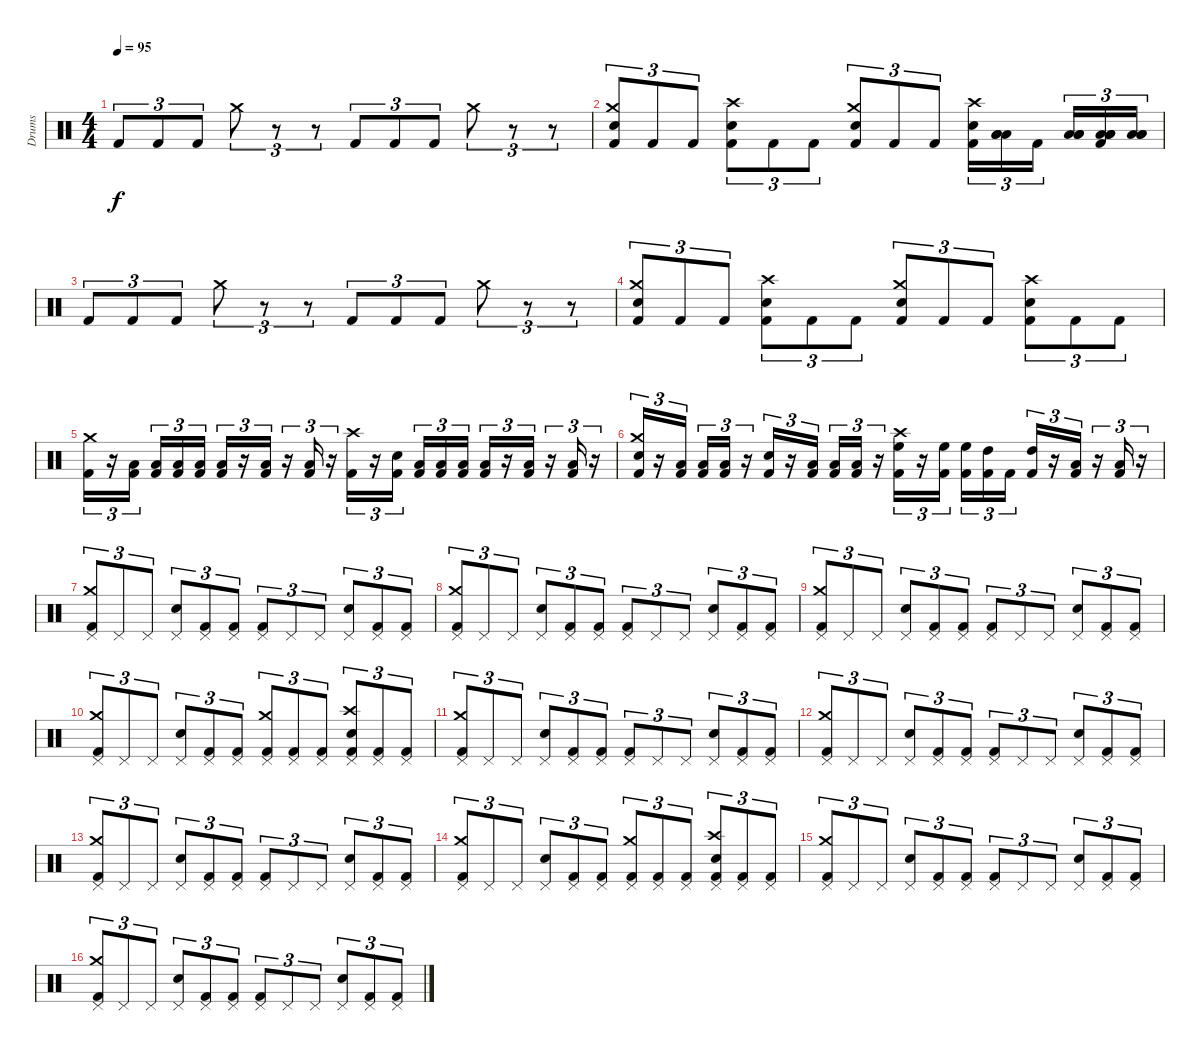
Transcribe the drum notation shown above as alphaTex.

\track ("Drums" "Drums") {instrument percussion}
\staff {score}
\articulation defaults
\ts (4 4)
\tempo 95
\clef neutral
\ks c "Kick (hit) 2".8{tu (3 2) dy f} "Kick (hit) 2".8{tu (3 2)} "Kick (hit) 2".8{tu (3 2)} "Crash medium (hit)".8{tu (3 2)}
r.8{tu (3 2)} r.8{tu (3 2)} "Kick (hit) 2".8{tu (3 2)} "Kick (hit) 2".8{tu (3 2)} "Kick (hit) 2".8{tu (3 2)} "Crash medium (hit)".8{tu (3 2)} r.8{tu (3 2)} r.8{tu (3 2)} |
("Kick (hit) 2" "Crash medium (hit)" "Snare (hit) 2").8{tu (3 2)} "Kick (hit) 2".8{tu (3 2)} "Kick (hit) 2".8{tu (3 2)} ("Kick (hit) 2" "Crash high (hit)" "Snare (hit) 2").8{tu (3 2)} "Kick (hit) 2".8{tu (3 2)} "Kick (hit) 2".8{tu (3 2)} ("Kick (hit) 2" "Crash medium (hit)" "Snare (hit) 2").8{tu (3 2)} "Kick (hit) 2".8{tu (3 2)} "Kick (hit) 2".8{tu (3 2)} ("Kick (hit) 2" "Crash high (hit)" "Snare (hit) 2").16{tu (3 2)} ("Low Tom (hit)" "Low Tom (hit)" "Low Tom (hit)").16{tu (3 2)} "Kick (hit) 2".16{tu (3 2) beam splitsecondary} ("Low Tom (hit)" "Low Tom (hit)" "Low Tom (hit)").16{tu (3 2)} ("Kick (hit) 2" "Low Tom (hit)" "Low Tom (hit)" "Low Tom (hit)").16{tu (3 2)} ("Low Floor Tom (hit)" "Low Floor Tom (hit)" "Low Floor Tom (hit)").16{tu (3 2)} |
"Kick (hit) 2".8{tu (3 2)} "Kick (hit) 2".8{tu (3 2)} "Kick (hit) 2".8{tu (3 2)} "Crash medium (hit)".8{tu (3 2)} r.8{tu (3 2)} r.8{tu (3 2)} "Kick (hit) 2".8{tu (3 2)} "Kick (hit) 2".8{tu (3 2)} "Kick (hit) 2".8{tu (3 2)} "Crash medium (hit)".8{tu (3 2)} r.8{tu (3 2)} r.8{tu (3 2)} |
("Kick (hit) 2" "Crash medium (hit)" "Snare (hit) 2").8{tu (3 2)} "Kick (hit) 2".8{tu (3 2)} "Kick (hit) 2".8{tu (3 2)} ("Kick (hit) 2" "Crash high (hit)" "Snare (hit) 2").8{tu (3 2)} "Kick (hit) 2".8{tu (3 2)} "Kick (hit) 2".8{tu (3 2)} ("Kick (hit) 2" "Crash medium (hit)" "Snare (hit) 2").8{tu (3 2)} "Kick (hit) 2".8{tu (3 2)} "Kick (hit) 2".8{tu (3 2)} ("Kick (hit) 2" "Crash high (hit)" "Snare (hit) 2").8{tu (3 2)} "Kick (hit) 2".8{tu (3 2)} "Kick (hit) 2".8{tu (3 2)} |
("Kick (hit) 2" "Crash medium (hit)").16{tu (3 2)} r.16{tu (3 2)} ("Kick (hit) 2" "Low Tom (hit)").16{tu (3 2) beam splitsecondary} ("Kick (hit) 2" "Low Tom (hit)").16{tu (3 2)} ("Kick (hit) 2" "Low Tom (hit)").16{tu (3 2)} ("Kick (hit) 2" "Low Tom (hit)").16{tu (3 2)} ("Kick (hit) 2" "Low Floor Tom (hit)").16{tu (3 2)} r.16{tu (3 2)} ("Kick (hit) 2" "Low Floor Tom (hit)").16{tu (3 2)} r.16{tu (3 2)} ("Kick (hit) 2" "Low Floor Tom (hit)").16{tu (3 2)} r.16{tu (3 2)} ("Kick (hit) 2" "Crash high (hit)").16{tu (3 2)} r.16{tu (3 2)} ("Kick (hit) 2" "Snare (hit) 2").16{tu (3 2) beam splitsecondary} ("Kick (hit) 2" "Low Tom (hit)").16{tu (3 2)} ("Kick (hit) 2" "Low Tom (hit)").16{tu (3 2)} ("Kick (hit) 2" "Low Tom (hit)").16{tu (3 2)} ("Kick (hit) 2" "Low Floor Tom (hit)").16{tu (3 2)} r.16{tu (3 2)} ("Kick (hit) 2" "Low Floor Tom (hit)").16{tu (3 2)} r.16{tu (3 2)} ("Kick (hit) 2" "Low Floor Tom (hit)").16{tu (3 2)} r.16{tu (3 2)} |
("Kick (hit) 2" "Crash medium (hit)" "Snare (hit) 2").16{tu (3 2)} r.16{tu (3 2)} ("Kick (hit) 2" "Low Tom (hit)").16{tu (3 2) beam splitsecondary} ("Kick (hit) 2" "Low Tom (hit)").16{tu (3 2)} ("Kick (hit) 2" "Low Floor Tom (hit)").16{tu (3 2)} r.16{tu (3 2)} ("Kick (hit) 2" "Snare (hit) 2").16{tu (3 2)} r.16{tu (3 2)} ("Kick (hit) 2" "Low Tom (hit)").16{tu (3 2) beam splitsecondary} ("Kick (hit) 2" "Low Tom (hit)").16{tu (3 2)} ("Kick (hit) 2" "Low Floor Tom (hit)").16{tu (3 2)} r.16{tu (3 2)} ("Kick (hit) 2" "Crash high (hit)" "High Floor Tom (hit)").16{tu (3 2)} r.16{tu (3 2)} ("Kick (hit) 2" "High Floor Tom (hit)").16{tu (3 2) beam splitsecondary} ("Kick (hit) 2" "High Floor Tom (hit)").16{tu (3 2)} ("Kick (hit) 2" "High Tom (hit)").16{tu (3 2)} "Kick (hit) 2".16{tu (3 2)} ("Kick (hit) 2" "High Tom (hit)").16{tu (3 2)} r.16{tu (3 2)} ("Kick (hit) 2" "Low Floor Tom (hit)").16{tu (3 2)} r.16{tu (3 2)} ("Kick (hit) 2" "Low Floor Tom (hit)").16{tu (3 2)} r.16{tu (3 2)} |
("Kick (hit) 2" "Crash medium (hit)" "Pedal Hi-Hat (hit)").8{tu (3 2)} "Pedal Hi-Hat (hit)".8{tu (3 2)} "Pedal Hi-Hat (hit)".8{tu (3 2)} ("Snare (hit) 2" "Pedal Hi-Hat (hit)").8{tu (3 2)} ("Kick (hit) 2" "Pedal Hi-Hat (hit)").8{tu (3 2)} ("Kick (hit) 2" "Pedal Hi-Hat (hit)").8{tu (3 2)} ("Kick (hit) 2" "Pedal Hi-Hat (hit)").8{tu (3 2)} "Pedal Hi-Hat (hit)".8{tu (3 2)} "Pedal Hi-Hat (hit)".8{tu (3 2)} ("Snare (hit) 2" "Pedal Hi-Hat (hit)").8{tu (3 2)} ("Kick (hit) 2" "Pedal Hi-Hat (hit)").8{tu (3 2)} ("Kick (hit) 2" "Pedal Hi-Hat (hit)").8{tu (3 2)} |
("Kick (hit) 2" "Crash medium (hit)" "Pedal Hi-Hat (hit)").8{tu (3 2)} "Pedal Hi-Hat (hit)".8{tu (3 2)} "Pedal Hi-Hat (hit)".8{tu (3 2)} ("Snare (hit) 2" "Pedal Hi-Hat (hit)").8{tu (3 2)} ("Kick (hit) 2" "Pedal Hi-Hat (hit)").8{tu (3 2)} ("Kick (hit) 2" "Pedal Hi-Hat (hit)").8{tu (3 2)} ("Kick (hit) 2" "Pedal Hi-Hat (hit)").8{tu (3 2)} "Pedal Hi-Hat (hit)".8{tu (3 2)} "Pedal Hi-Hat (hit)".8{tu (3 2)} ("Snare (hit) 2" "Pedal Hi-Hat (hit)").8{tu (3 2)} ("Kick (hit) 2" "Pedal Hi-Hat (hit)").8{tu (3 2)} ("Kick (hit) 2" "Pedal Hi-Hat (hit)").8{tu (3 2)} |
("Kick (hit) 2" "Crash medium (hit)" "Pedal Hi-Hat (hit)").8{tu (3 2)} "Pedal Hi-Hat (hit)".8{tu (3 2)} "Pedal Hi-Hat (hit)".8{tu (3 2)} ("Snare (hit) 2" "Pedal Hi-Hat (hit)").8{tu (3 2)} ("Kick (hit) 2" "Pedal Hi-Hat (hit)").8{tu (3 2)} ("Kick (hit) 2" "Pedal Hi-Hat (hit)").8{tu (3 2)} ("Kick (hit) 2" "Pedal Hi-Hat (hit)").8{tu (3 2)} "Pedal Hi-Hat (hit)".8{tu (3 2)} "Pedal Hi-Hat (hit)".8{tu (3 2)} ("Snare (hit) 2" "Pedal Hi-Hat (hit)").8{tu (3 2)} ("Kick (hit) 2" "Pedal Hi-Hat (hit)").8{tu (3 2)} ("Kick (hit) 2" "Pedal Hi-Hat (hit)").8{tu (3 2)} |
("Kick (hit) 2" "Crash medium (hit)" "Pedal Hi-Hat (hit)").8{tu (3 2)} "Pedal Hi-Hat (hit)".8{tu (3 2)} "Pedal Hi-Hat (hit)".8{tu (3 2)} ("Snare (hit) 2" "Pedal Hi-Hat (hit)").8{tu (3 2)} ("Kick (hit) 2" "Pedal Hi-Hat (hit)").8{tu (3 2)} ("Kick (hit) 2" "Pedal Hi-Hat (hit)").8{tu (3 2)} ("Kick (hit) 2" "Crash medium (hit)" "Pedal Hi-Hat (hit)").8{tu (3 2)} ("Kick (hit) 2" "Pedal Hi-Hat (hit)").8{tu (3 2)} ("Kick (hit) 2" "Pedal Hi-Hat (hit)").8{tu (3 2)} ("Kick (hit) 2" "Crash high (hit)" "Snare (hit) 2" "Pedal Hi-Hat (hit)").8{tu (3 2)} ("Kick (hit) 2" "Pedal Hi-Hat (hit)").8{tu (3 2)} ("Kick (hit) 2" "Pedal Hi-Hat (hit)").8{tu (3 2)} |
("Kick (hit) 2" "Crash medium (hit)" "Pedal Hi-Hat (hit)").8{tu (3 2)} "Pedal Hi-Hat (hit)".8{tu (3 2)} "Pedal Hi-Hat (hit)".8{tu (3 2)} ("Snare (hit) 2" "Pedal Hi-Hat (hit)").8{tu (3 2)} ("Kick (hit) 2" "Pedal Hi-Hat (hit)").8{tu (3 2)} ("Kick (hit) 2" "Pedal Hi-Hat (hit)").8{tu (3 2)} ("Kick (hit) 2" "Pedal Hi-Hat (hit)").8{tu (3 2)} "Pedal Hi-Hat (hit)".8{tu (3 2)} "Pedal Hi-Hat (hit)".8{tu (3 2)} ("Snare (hit) 2" "Pedal Hi-Hat (hit)").8{tu (3 2)} ("Kick (hit) 2" "Pedal Hi-Hat (hit)").8{tu (3 2)} ("Kick (hit) 2" "Pedal Hi-Hat (hit)").8{tu (3 2)} |
("Kick (hit) 2" "Crash medium (hit)" "Pedal Hi-Hat (hit)").8{tu (3 2)} "Pedal Hi-Hat (hit)".8{tu (3 2)} "Pedal Hi-Hat (hit)".8{tu (3 2)} ("Snare (hit) 2" "Pedal Hi-Hat (hit)").8{tu (3 2)} ("Kick (hit) 2" "Pedal Hi-Hat (hit)").8{tu (3 2)} ("Kick (hit) 2" "Pedal Hi-Hat (hit)").8{tu (3 2)} ("Kick (hit) 2" "Pedal Hi-Hat (hit)").8{tu (3 2)} "Pedal Hi-Hat (hit)".8{tu (3 2)} "Pedal Hi-Hat (hit)".8{tu (3 2)} ("Snare (hit) 2" "Pedal Hi-Hat (hit)").8{tu (3 2)} ("Kick (hit) 2" "Pedal Hi-Hat (hit)").8{tu (3 2)} ("Kick (hit) 2" "Pedal Hi-Hat (hit)").8{tu (3 2)} |
("Kick (hit) 2" "Crash medium (hit)" "Pedal Hi-Hat (hit)").8{tu (3 2)} "Pedal Hi-Hat (hit)".8{tu (3 2)} "Pedal Hi-Hat (hit)".8{tu (3 2)} ("Snare (hit) 2" "Pedal Hi-Hat (hit)").8{tu (3 2)} ("Kick (hit) 2" "Pedal Hi-Hat (hit)").8{tu (3 2)} ("Kick (hit) 2" "Pedal Hi-Hat (hit)").8{tu (3 2)} ("Kick (hit) 2" "Pedal Hi-Hat (hit)").8{tu (3 2)} "Pedal Hi-Hat (hit)".8{tu (3 2)} "Pedal Hi-Hat (hit)".8{tu (3 2)} ("Snare (hit) 2" "Pedal Hi-Hat (hit)").8{tu (3 2)} ("Kick (hit) 2" "Pedal Hi-Hat (hit)").8{tu (3 2)} ("Kick (hit) 2" "Pedal Hi-Hat (hit)").8{tu (3 2)} |
("Kick (hit) 2" "Crash medium (hit)" "Pedal Hi-Hat (hit)").8{tu (3 2)} "Pedal Hi-Hat (hit)".8{tu (3 2)} "Pedal Hi-Hat (hit)".8{tu (3 2)} ("Snare (hit) 2" "Pedal Hi-Hat (hit)").8{tu (3 2)} ("Kick (hit) 2" "Pedal Hi-Hat (hit)").8{tu (3 2)} ("Kick (hit) 2" "Pedal Hi-Hat (hit)").8{tu (3 2)} ("Kick (hit) 2" "Crash medium (hit)" "Pedal Hi-Hat (hit)").8{tu (3 2)} ("Kick (hit) 2" "Pedal Hi-Hat (hit)").8{tu (3 2)} ("Kick (hit) 2" "Pedal Hi-Hat (hit)").8{tu (3 2)} ("Kick (hit) 2" "Crash high (hit)" "Snare (hit) 2" "Pedal Hi-Hat (hit)").8{tu (3 2)} ("Kick (hit) 2" "Pedal Hi-Hat (hit)").8{tu (3 2)} ("Kick (hit) 2" "Pedal Hi-Hat (hit)").8{tu (3 2)} |
("Kick (hit) 2" "Crash medium (hit)" "Pedal Hi-Hat (hit)").8{tu (3 2)} "Pedal Hi-Hat (hit)".8{tu (3 2)} "Pedal Hi-Hat (hit)".8{tu (3 2)} ("Snare (hit) 2" "Pedal Hi-Hat (hit)").8{tu (3 2)} ("Kick (hit) 2" "Pedal Hi-Hat (hit)").8{tu (3 2)} ("Kick (hit) 2" "Pedal Hi-Hat (hit)").8{tu (3 2)} ("Kick (hit) 2" "Pedal Hi-Hat (hit)").8{tu (3 2)} "Pedal Hi-Hat (hit)".8{tu (3 2)} "Pedal Hi-Hat (hit)".8{tu (3 2)} ("Snare (hit) 2" "Pedal Hi-Hat (hit)").8{tu (3 2)} ("Kick (hit) 2" "Pedal Hi-Hat (hit)").8{tu (3 2)} ("Kick (hit) 2" "Pedal Hi-Hat (hit)").8{tu (3 2)} |
("Kick (hit) 2" "Crash medium (hit)" "Pedal Hi-Hat (hit)").8{tu (3 2)} "Pedal Hi-Hat (hit)".8{tu (3 2)} "Pedal Hi-Hat (hit)".8{tu (3 2)} ("Snare (hit) 2" "Pedal Hi-Hat (hit)").8{tu (3 2)} ("Kick (hit) 2" "Pedal Hi-Hat (hit)").8{tu (3 2)} ("Kick (hit) 2" "Pedal Hi-Hat (hit)").8{tu (3 2)} ("Kick (hit) 2" "Pedal Hi-Hat (hit)").8{tu (3 2)} "Pedal Hi-Hat (hit)".8{tu (3 2)} "Pedal Hi-Hat (hit)".8{tu (3 2)} ("Snare (hit) 2" "Pedal Hi-Hat (hit)").8{tu (3 2)} ("Kick (hit) 2" "Pedal Hi-Hat (hit)").8{tu (3 2)} ("Kick (hit) 2" "Pedal Hi-Hat (hit)").8{tu (3 2)}
